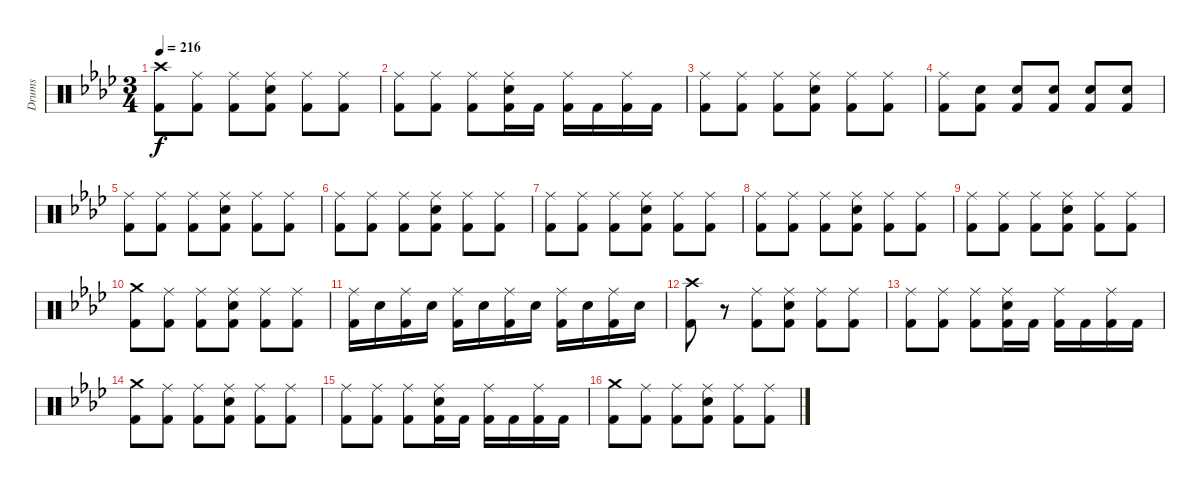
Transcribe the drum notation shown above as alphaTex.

\bracketExtendMode groupsimilarinstruments
\otherSystemsTrackNameOrientation horizontal
\track ("Guyot Begin-Benoit" "Drums") {instrument percussion}
\staff {score}
\articulation defaults
\ts (3 4)
\section ("" "")
\tempo 216
\clef neutral
\ks ab
("Crash high (hit)"{acc forcenatural} "Kick (hit) 2"{acc forcenatural}).8{dy f beam Down} ("Ride (middle)"{acc forcenatural} "Kick (hit) 2"{acc forcenatural}).8{beam Down} ("Ride (middle)"{acc forcenatural} "Kick (hit) 2"{acc forcenatural}).8{beam Down} ("Ride (middle)"{acc forcenatural} "Snare (hit) 2"{acc forcenatural} "Kick (hit) 2"{acc forcenatural}).8{beam Down} ("Ride (middle)"{acc forcenatural} "Kick (hit) 2"{acc forcenatural}).8{beam Down} ("Ride (middle)"{acc forcenatural} "Kick (hit) 2"{acc forcenatural}).8{beam Down} |
("Ride (middle)"{acc forcenatural} "Kick (hit) 2"{acc forcenatural}).8{beam Down} ("Ride (middle)"{acc forcenatural} "Kick (hit) 2"{acc forcenatural}).8{beam Down} ("Ride (middle)"{acc forcenatural} "Kick (hit) 2"{acc forcenatural}).8{beam Down} ("Ride (middle)"{acc forcenatural} "Snare (hit) 2"{acc forcenatural} "Kick (hit) 2"{acc forcenatural}).16{beam Down} "Kick (hit) 2"{acc forcenatural}.16{beam Down} ("Ride (middle)"{acc forcenatural} "Kick (hit) 2"{acc forcenatural}).16{beam Down} "Kick (hit) 2"{acc forcenatural}.16{beam Down} ("Ride (middle)"{acc forcenatural} "Kick (hit) 2"{acc forcenatural}).16{beam Down} "Kick (hit) 2"{acc forcenatural}.16{beam Down} |
("Ride (middle)"{acc forcenatural} "Kick (hit) 2"{acc forcenatural}).8{beam Down} ("Ride (middle)"{acc forcenatural} "Kick (hit) 2"{acc forcenatural}).8{beam Down} ("Ride (middle)"{acc forcenatural} "Kick (hit) 2"{acc forcenatural}).8{beam Down} ("Ride (middle)"{acc forcenatural} "Snare (hit) 2"{acc forcenatural} "Kick (hit) 2"{acc forcenatural}).8{beam Down} ("Ride (middle)"{acc forcenatural} "Kick (hit) 2"{acc forcenatural}).8{beam Down} ("Ride (middle)"{acc forcenatural} "Kick (hit) 2"{acc forcenatural}).8{beam Down} |
("Ride (middle)"{acc forcenatural} "Kick (hit) 2"{acc forcenatural}).8{beam Down} ("Snare (hit) 2"{acc forcenatural} "Kick (hit) 2"{acc forcenatural}).8{beam Down} ("Snare (hit) 2"{acc forcenatural} "Kick (hit) 2"{acc forcenatural}).8{beam Up} ("Snare (hit) 2"{acc forcenatural} "Kick (hit) 2"{acc forcenatural}).8{beam Up} ("Snare (hit) 2"{acc forcenatural} "Kick (hit) 2"{acc forcenatural}).8{beam Up} ("Snare (hit) 2"{acc forcenatural} "Kick (hit) 2"{acc forcenatural}).8{beam Up} |
("Ride (middle)"{acc forcenatural} "Kick (hit) 2"{acc forcenatural}).8{beam Down} ("Ride (middle)"{acc forcenatural} "Kick (hit) 2"{acc forcenatural}).8{beam Down} ("Ride (middle)"{acc forcenatural} "Kick (hit) 2"{acc forcenatural}).8{beam Down} ("Ride (middle)"{acc forcenatural} "Snare (hit) 2"{acc forcenatural} "Kick (hit) 2"{acc forcenatural}).8{beam Down} ("Ride (middle)"{acc forcenatural} "Kick (hit) 2"{acc forcenatural}).8{beam Down} ("Ride (middle)"{acc forcenatural} "Kick (hit) 2"{acc forcenatural}).8{beam Down} |
("Ride (middle)"{acc forcenatural} "Kick (hit) 2"{acc forcenatural}).8{beam Down} ("Ride (middle)"{acc forcenatural} "Kick (hit) 2"{acc forcenatural}).8{beam Down} ("Ride (middle)"{acc forcenatural} "Kick (hit) 2"{acc forcenatural}).8{beam Down} ("Ride (middle)"{acc forcenatural} "Snare (hit) 2"{acc forcenatural} "Kick (hit) 2"{acc forcenatural}).8{beam Down} ("Ride (middle)"{acc forcenatural} "Kick (hit) 2"{acc forcenatural}).8{beam Down} ("Ride (middle)"{acc forcenatural} "Kick (hit) 2"{acc forcenatural}).8{beam Down} |
("Ride (middle)"{acc forcenatural} "Kick (hit) 2"{acc forcenatural}).8{beam Down} ("Ride (middle)"{acc forcenatural} "Kick (hit) 2"{acc forcenatural}).8{beam Down} ("Ride (middle)"{acc forcenatural} "Kick (hit) 2"{acc forcenatural}).8{beam Down} ("Ride (middle)"{acc forcenatural} "Snare (hit) 2"{acc forcenatural} "Kick (hit) 2"{acc forcenatural}).8{beam Down} ("Ride (middle)"{acc forcenatural} "Kick (hit) 2"{acc forcenatural}).8{beam Down} ("Ride (middle)"{acc forcenatural} "Kick (hit) 2"{acc forcenatural}).8{beam Down} |
("Ride (middle)"{acc forcenatural} "Kick (hit) 2"{acc forcenatural}).8{beam Down} ("Ride (middle)"{acc forcenatural} "Kick (hit) 2"{acc forcenatural}).8{beam Down} ("Ride (middle)"{acc forcenatural} "Kick (hit) 2"{acc forcenatural}).8{beam Down} ("Ride (middle)"{acc forcenatural} "Snare (hit) 2"{acc forcenatural} "Kick (hit) 2"{acc forcenatural}).8{beam Down} ("Ride (middle)"{acc forcenatural} "Kick (hit) 2"{acc forcenatural}).8{beam Down} ("Ride (middle)"{acc forcenatural} "Kick (hit) 2"{acc forcenatural}).8{beam Down} |
("Ride (middle)"{acc forcenatural} "Kick (hit) 2"{acc forcenatural}).8{beam Down} ("Ride (middle)"{acc forcenatural} "Kick (hit) 2"{acc forcenatural}).8{beam Down} ("Ride (middle)"{acc forcenatural} "Kick (hit) 2"{acc forcenatural}).8{beam Down} ("Ride (middle)"{acc forcenatural} "Snare (hit) 2"{acc forcenatural} "Kick (hit) 2"{acc forcenatural}).8{beam Down} ("Ride (middle)"{acc forcenatural} "Kick (hit) 2"{acc forcenatural}).8{beam Down} ("Ride (middle)"{acc forcenatural} "Kick (hit) 2"{acc forcenatural}).8{beam Down} |
("Crash medium (hit)"{acc forcenatural} "Kick (hit) 2"{acc forcenatural}).8{beam Down} ("Ride (middle)"{acc forcenatural} "Kick (hit) 2"{acc forcenatural}).8{beam Down} ("Ride (middle)"{acc forcenatural} "Kick (hit) 2"{acc forcenatural}).8{beam Down} ("Ride (middle)"{acc forcenatural} "Snare (hit) 2"{acc forcenatural} "Kick (hit) 2"{acc forcenatural}).8{beam Down} ("Ride (middle)"{acc forcenatural} "Kick (hit) 2"{acc forcenatural}).8{beam Down} ("Ride (middle)"{acc forcenatural} "Kick (hit) 2"{acc forcenatural}).8{beam Down} |
("Ride (middle)"{acc forcenatural} "Kick (hit) 2"{acc forcenatural}).16{beam Down} "Snare (hit) 2"{acc forcenatural}.16{beam Down} ("Ride (middle)"{acc forcenatural} "Kick (hit) 2"{acc forcenatural}).16{beam Down} "Snare (hit) 2"{acc forcenatural}.16{beam Down} ("Ride (middle)"{acc forcenatural} "Kick (hit) 2"{acc forcenatural}).16{beam Down} "Snare (hit) 2"{acc forcenatural}.16{beam Down} ("Ride (middle)"{acc forcenatural} "Kick (hit) 2"{acc forcenatural}).16{beam Down} "Snare (hit) 2"{acc forcenatural}.16{beam Down} ("Ride (middle)"{acc forcenatural} "Kick (hit) 2"{acc forcenatural}).16{beam Down} "Snare (hit) 2"{acc forcenatural}.16{beam Down} ("Ride (middle)"{acc forcenatural} "Kick (hit) 2"{acc forcenatural}).16{beam Down} "Snare (hit) 2"{acc forcenatural}.16{beam Down} |
("Crash high (hit)"{acc forcenatural} "Kick (hit) 2"{acc forcenatural}).8{beam Down} r.8{beam Down} ("Ride (middle)"{acc forcenatural} "Kick (hit) 2"{acc forcenatural}).8{beam Down} ("Ride (middle)"{acc forcenatural} "Snare (hit) 2"{acc forcenatural} "Kick (hit) 2"{acc forcenatural}).8{beam Down} ("Ride (middle)"{acc forcenatural} "Kick (hit) 2"{acc forcenatural}).8{beam Down} ("Ride (middle)"{acc forcenatural} "Kick (hit) 2"{acc forcenatural}).8{beam Down} |
("Ride (middle)"{acc forcenatural} "Kick (hit) 2"{acc forcenatural}).8{beam Down} ("Ride (middle)"{acc forcenatural} "Kick (hit) 2"{acc forcenatural}).8{beam Down} ("Ride (middle)"{acc forcenatural} "Kick (hit) 2"{acc forcenatural}).8{beam Down} ("Ride (middle)"{acc forcenatural} "Snare (hit) 2"{acc forcenatural} "Kick (hit) 2"{acc forcenatural}).16{beam Down} "Kick (hit) 2"{acc forcenatural}.16{beam Down} ("Ride (middle)"{acc forcenatural} "Kick (hit) 2"{acc forcenatural}).16{beam Down} "Kick (hit) 2"{acc forcenatural}.16{beam Down} ("Ride (middle)"{acc forcenatural} "Kick (hit) 2"{acc forcenatural}).16{beam Down} "Kick (hit) 2"{acc forcenatural}.16{beam Down} |
("Crash medium (hit)"{acc forcenatural} "Kick (hit) 2"{acc forcenatural}).8{beam Down} ("Ride (middle)"{acc forcenatural} "Kick (hit) 2"{acc forcenatural}).8{beam Down} ("Ride (middle)"{acc forcenatural} "Kick (hit) 2"{acc forcenatural}).8{beam Down} ("Ride (middle)"{acc forcenatural} "Snare (hit) 2"{acc forcenatural} "Kick (hit) 2"{acc forcenatural}).8{beam Down} ("Ride (middle)"{acc forcenatural} "Kick (hit) 2"{acc forcenatural}).8{beam Down} ("Ride (middle)"{acc forcenatural} "Kick (hit) 2"{acc forcenatural}).8{beam Down} |
("Ride (middle)"{acc forcenatural} "Kick (hit) 2"{acc forcenatural}).8{beam Down} ("Ride (middle)"{acc forcenatural} "Kick (hit) 2"{acc forcenatural}).8{beam Down} ("Ride (middle)"{acc forcenatural} "Kick (hit) 2"{acc forcenatural}).8{beam Down} ("Ride (middle)"{acc forcenatural} "Snare (hit) 2"{acc forcenatural} "Kick (hit) 2"{acc forcenatural}).16{beam Down} "Kick (hit) 2"{acc forcenatural}.16{beam Down} ("Ride (middle)"{acc forcenatural} "Kick (hit) 2"{acc forcenatural}).16{beam Down} "Kick (hit) 2"{acc forcenatural}.16{beam Down} ("Ride (middle)"{acc forcenatural} "Kick (hit) 2"{acc forcenatural}).16{beam Down} "Kick (hit) 2"{acc forcenatural}.16{beam Down} |
("Crash medium (hit)"{acc forcenatural} "Kick (hit) 2"{acc forcenatural}).8{beam Down} ("Ride (middle)"{acc forcenatural} "Kick (hit) 2"{acc forcenatural}).8{beam Down} ("Ride (middle)"{acc forcenatural} "Kick (hit) 2"{acc forcenatural}).8{beam Down} ("Ride (middle)"{acc forcenatural} "Snare (hit) 2"{acc forcenatural} "Kick (hit) 2"{acc forcenatural}).8{beam Down} ("Ride (middle)"{acc forcenatural} "Kick (hit) 2"{acc forcenatural}).8{beam Down} ("Ride (middle)"{acc forcenatural} "Kick (hit) 2"{acc forcenatural}).8{beam Down}
